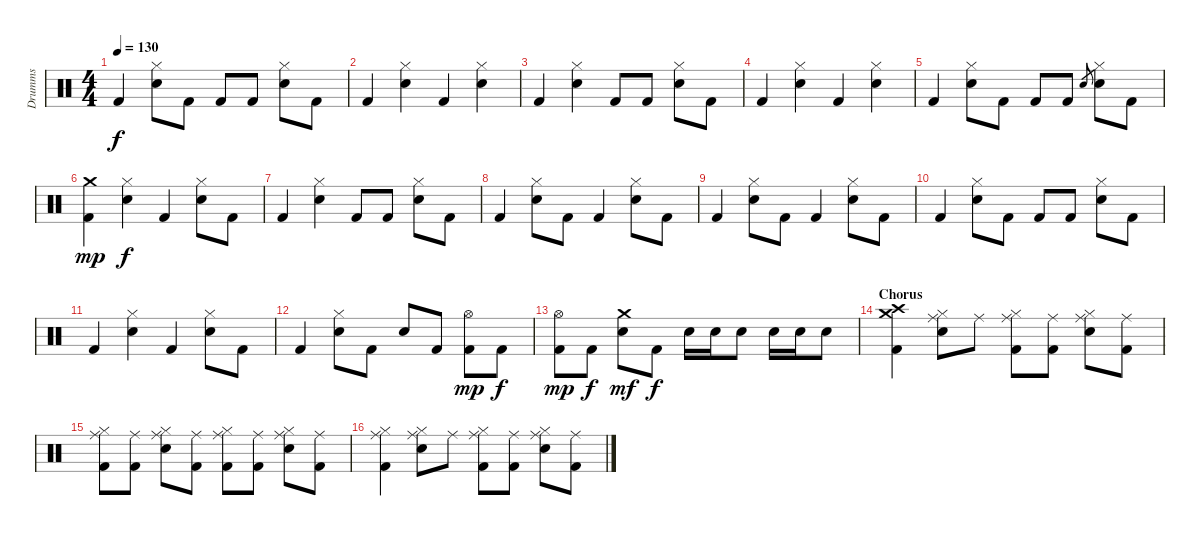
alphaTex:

\track ("Drumms" "Drumms") {instrument percussion}
\staff {score}
\articulation defaults
\ts (4 4)
\tempo 130
\clef neutral
\ks c "Kick (hit) 2".4{dy f}
("Hi-Hat (closed)" "Electric Snare (hit)").8 "Kick (hit) 2".8 "Kick (hit) 2".8 "Kick (hit) 2".8 ("Hi-Hat (closed)" "Electric Snare (hit)").8 "Kick (hit) 2".8 |
"Kick (hit) 2".4 ("Hi-Hat (closed)" "Electric Snare (hit)").4 "Kick (hit) 2".4 ("Hi-Hat (closed)" "Electric Snare (hit)").4 |
"Kick (hit) 2".4 ("Hi-Hat (closed)" "Electric Snare (hit)").4 "Kick (hit) 2".8 "Kick (hit) 2".8 ("Hi-Hat (closed)" "Electric Snare (hit)").8 "Kick (hit) 2".8 |
"Kick (hit) 2".4 ("Hi-Hat (closed)" "Electric Snare (hit)").4 "Kick (hit) 2".4 ("Hi-Hat (closed)" "Electric Snare (hit)").4 |
"Kick (hit) 2".4 ("Hi-Hat (closed)" "Electric Snare (hit)").8 "Kick (hit) 2".8 "Kick (hit) 2".8 "Kick (hit) 2".8 "Electric Snare (hit)".8{gr} ("Hi-Hat (closed)" "Electric Snare (hit)").8 "Kick (hit) 2".8 |
("Crash medium (hit)" "Kick (hit) 2").4{dy mp} ("Hi-Hat (closed)" "Electric Snare (hit)").4{dy f} "Kick (hit) 2".4 ("Hi-Hat (closed)" "Electric Snare (hit)").8 "Kick (hit) 2".8 |
"Kick (hit) 2".4 ("Hi-Hat (closed)" "Electric Snare (hit)").4 "Kick (hit) 2".8 "Kick (hit) 2".8 ("Hi-Hat (closed)" "Electric Snare (hit)").8 "Kick (hit) 2".8 |
"Kick (hit) 2".4 ("Hi-Hat (closed)" "Electric Snare (hit)").8 "Kick (hit) 2".8 "Kick (hit) 2".4 ("Hi-Hat (closed)" "Electric Snare (hit)").8 "Kick (hit) 2".8 |
"Kick (hit) 2".4 ("Hi-Hat (closed)" "Electric Snare (hit)").8 "Kick (hit) 2".8 "Kick (hit) 2".4 ("Hi-Hat (closed)" "Electric Snare (hit)").8 "Kick (hit) 2".8 |
"Kick (hit) 2".4 ("Hi-Hat (closed)" "Electric Snare (hit)").8 "Kick (hit) 2".8 "Kick (hit) 2".8 "Kick (hit) 2".8 ("Hi-Hat (closed)" "Electric Snare (hit)").8 "Kick (hit) 2".8 |
"Kick (hit) 2".4 ("Hi-Hat (closed)" "Electric Snare (hit)").4 "Kick (hit) 2".4 ("Hi-Hat (closed)" "Electric Snare (hit)").8 "Kick (hit) 2".8 |
"Kick (hit) 2".4 ("Hi-Hat (closed)" "Electric Snare (hit)").8 "Kick (hit) 2".8 "Electric Snare (hit)".8 "Kick (hit) 2".8 ("Hi-Hat (open)" "Kick (hit) 2").8{dy mp} "Kick (hit) 2".8{dy f} |
("Hi-Hat (open)" "Kick (hit) 2").8{dy mp} "Kick (hit) 2".8{dy f} ("Crash medium (hit)" "Electric Snare (hit)").8{dy mf} "Kick (hit) 2".8{dy f} "Electric Snare (hit)".16 "Electric Snare (hit)".16 "Electric Snare (hit)".8 "Electric Snare (hit)".16 "Electric Snare (hit)".16 "Electric Snare (hit)".8 |
\section ("" "Chorus")
("Crash medium (hit)" "Crash high (hit)" "Kick (hit) 2").4 ("Ride (middle)" "Hi-Hat (closed)" "Electric Snare (hit)").8 "Ride (middle)".8 ("Ride (middle)" "Hi-Hat (closed)" "Kick (hit) 2").8 ("Ride (middle)" "Kick (hit) 2").8 ("Ride (middle)" "Hi-Hat (closed)" "Electric Snare (hit)").8 ("Ride (middle)" "Kick (hit) 2").8 |
("Ride (middle)" "Hi-Hat (closed)" "Kick (hit) 2").8 ("Ride (middle)" "Kick (hit) 2").8 ("Ride (middle)" "Hi-Hat (closed)" "Electric Snare (hit)").8 ("Ride (middle)" "Kick (hit) 2").8 ("Ride (middle)" "Hi-Hat (closed)" "Kick (hit) 2").8 ("Ride (middle)" "Kick (hit) 2").8 ("Ride (middle)" "Hi-Hat (closed)" "Electric Snare (hit)").8 ("Ride (middle)" "Kick (hit) 2").8 |
("Ride (middle)" "Hi-Hat (closed)" "Kick (hit) 2").4 ("Ride (middle)" "Hi-Hat (closed)" "Electric Snare (hit)").8 "Ride (middle)".8 ("Ride (middle)" "Hi-Hat (closed)" "Kick (hit) 2").8 ("Ride (middle)" "Kick (hit) 2").8 ("Ride (middle)" "Hi-Hat (closed)" "Electric Snare (hit)").8 ("Ride (middle)" "Kick (hit) 2").8
